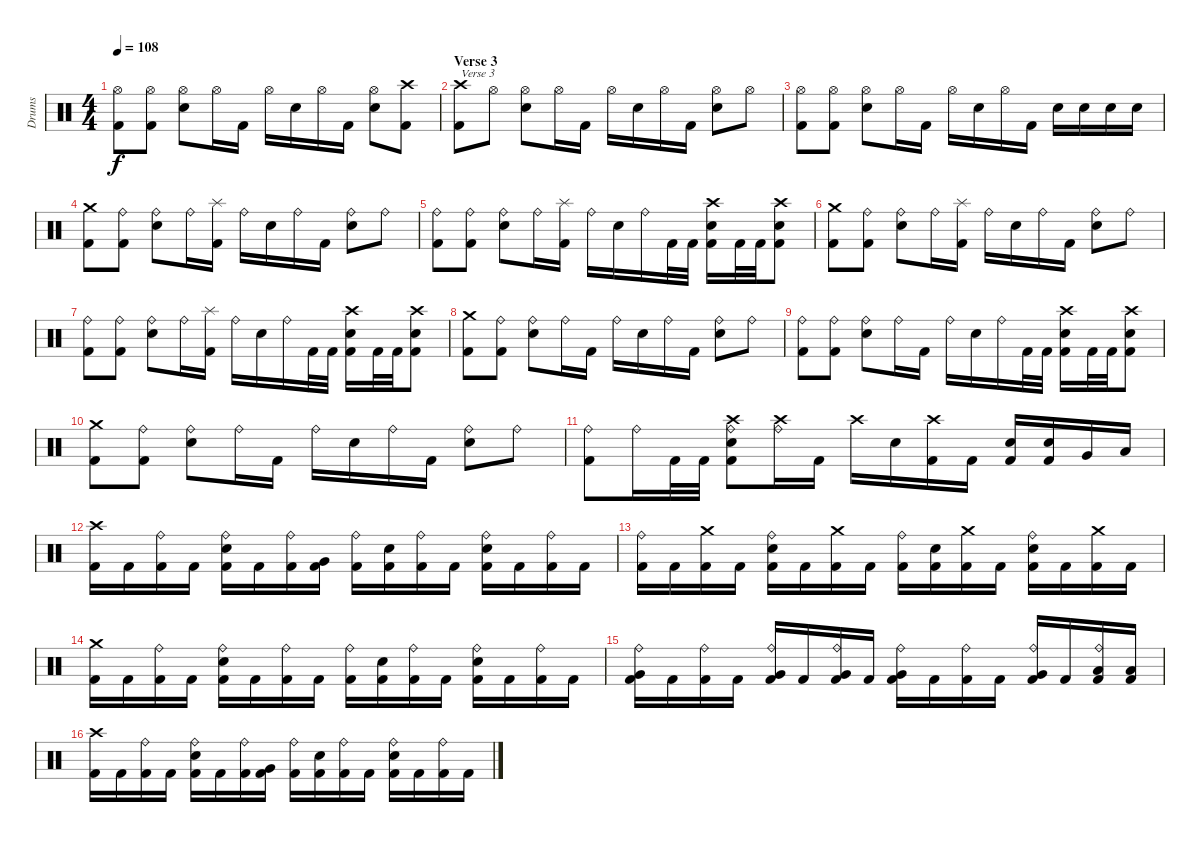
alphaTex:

\track ("Drums" "Drums") {instrument percussion}
\staff {score}
\articulation defaults
\ts (4 4)
\tempo 108
\clef neutral
\ks c
("Hi-Hat (open)" "Kick (hit) 2").8{dy f} ("Hi-Hat (open)" "Kick (hit) 2").8 ("Hi-Hat (open)" "Electric Snare (hit)").8 "Hi-Hat (open)".16 "Kick (hit) 2".16 "Hi-Hat (open)".16 "Electric Snare (hit)".16 "Hi-Hat (open)".16 "Kick (hit) 2".16 ("Hi-Hat (open)" "Electric Snare (hit)").8 ("Crash high (hit)" "Kick (hit) 2").8 |
\section ("" "Verse 3")
("Crash high (hit)" "Kick (hit) 2").8{txt "Verse 3"} "Hi-Hat (open)".8 ("Hi-Hat (open)" "Electric Snare (hit)").8 "Hi-Hat (open)".16 "Kick (hit) 2".16 "Hi-Hat (open)".16 "Electric Snare (hit)".16 "Hi-Hat (open)".16 "Kick (hit) 2".16 ("Hi-Hat (open)" "Electric Snare (hit)").8 "Hi-Hat (open)".8 |
("Hi-Hat (open)" "Kick (hit) 2").8 ("Hi-Hat (open)" "Kick (hit) 2").8 ("Hi-Hat (open)" "Electric Snare (hit)").8 "Hi-Hat (open)".16 "Kick (hit) 2".16 "Hi-Hat (open)".16 "Electric Snare (hit)".16 "Hi-Hat (open)".16 "Kick (hit) 2".16 "Electric Snare (hit)".16 "Electric Snare (hit)".16 "Electric Snare (hit)".16 "Electric Snare (hit)".16 |
("Crash medium (hit)" "Kick (hit) 2").8 ("Ride (bell)" "Kick (hit) 2").8 ("Ride (bell)" "Electric Snare (hit)").8 "Ride (bell)".16 ("Splash (hit)" "Kick (hit) 2").16 "Ride (bell)".16 "Electric Snare (hit)".16 "Ride (bell)".16 "Kick (hit) 2".16 ("Ride (bell)" "Electric Snare (hit)").8 "Ride (bell)".8 |
("Ride (bell)" "Kick (hit) 2").8 ("Ride (bell)" "Kick (hit) 2").8 ("Ride (bell)" "Electric Snare (hit)").8 "Ride (bell)".16 ("Splash (hit)" "Kick (hit) 2").16 "Ride (bell)".16 "Electric Snare (hit)".16 "Ride (bell)".16 "Kick (hit) 2".32 "Kick (hit) 2".32 ("Crash high (hit)" "Electric Snare (hit)" "Kick (hit) 2").16 "Kick (hit) 2".32 "Kick (hit) 2".32 ("Crash high (hit)" "Electric Snare (hit)" "Kick (hit) 2").8 |
("Crash medium (hit)" "Kick (hit) 2").8 ("Ride (bell)" "Kick (hit) 2").8 ("Ride (bell)" "Electric Snare (hit)").8 "Ride (bell)".16 ("Splash (hit)" "Kick (hit) 2").16 "Ride (bell)".16 "Electric Snare (hit)".16 "Ride (bell)".16 "Kick (hit) 2".16 ("Ride (bell)" "Electric Snare (hit)").8 "Ride (bell)".8 |
("Ride (bell)" "Kick (hit) 2").8 ("Ride (bell)" "Kick (hit) 2").8 ("Ride (bell)" "Electric Snare (hit)").8 "Ride (bell)".16 ("Splash (hit)" "Kick (hit) 2").16 "Ride (bell)".16 "Electric Snare (hit)".16 "Ride (bell)".16 "Kick (hit) 2".32 "Kick (hit) 2".32 ("Crash high (hit)" "Electric Snare (hit)" "Kick (hit) 2").16 "Kick (hit) 2".32 "Kick (hit) 2".32 ("Crash high (hit)" "Electric Snare (hit)" "Kick (hit) 2").8 |
("Crash medium (hit)" "Kick (hit) 2").8 ("Ride (bell)" "Kick (hit) 2").8 ("Ride (bell)" "Electric Snare (hit)").8 "Ride (bell)".16 "Kick (hit) 2".16 "Ride (bell)".16 "Electric Snare (hit)".16 "Ride (bell)".16 "Kick (hit) 2".16 ("Ride (bell)" "Electric Snare (hit)").8 "Ride (bell)".8 |
("Ride (bell)" "Kick (hit) 2").8 ("Ride (bell)" "Kick (hit) 2").8 ("Ride (bell)" "Electric Snare (hit)").8 "Ride (bell)".16 "Kick (hit) 2".16 "Ride (bell)".16 "Electric Snare (hit)".16 "Ride (bell)".16 "Kick (hit) 2".32 "Kick (hit) 2".32 ("Crash high (hit)" "Electric Snare (hit)" "Kick (hit) 2").16 "Kick (hit) 2".32 "Kick (hit) 2".32 ("Crash high (hit)" "Electric Snare (hit)" "Kick (hit) 2").8 |
("Crash medium (hit)" "Kick (hit) 2").8 ("Ride (bell)" "Kick (hit) 2").8 ("Ride (bell)" "Electric Snare (hit)").8 "Ride (bell)".16 "Kick (hit) 2".16 "Ride (bell)".16 "Electric Snare (hit)".16 "Ride (bell)".16 "Kick (hit) 2".16 ("Ride (bell)" "Electric Snare (hit)").8 "Ride (bell)".8 |
("Ride (bell)" "Kick (hit) 2").8 "Ride (bell)".16 "Kick (hit) 2".32 "Kick (hit) 2".32 ("Crash high (hit)" "Ride (bell)" "Electric Snare (hit)" "Kick (hit) 2").8 ("Crash high (hit)" "Ride (bell)").16 "Kick (hit) 2".16 "Crash high (hit)".16 "Electric Snare (hit)".16 ("Crash high (hit)" "Kick (hit) 2").16 "Kick (hit) 2".16 ("Electric Snare (hit)" "Kick (hit) 2").16 ("Electric Snare (hit)" "Kick (hit) 2").16 "Very Low Tom (hit)".16 "Low Tom (hit)".16 |
("Crash high (hit)" "Kick (hit) 2").16 "Kick (hit) 2".16 ("Ride (bell)" "Kick (hit) 2").16 "Kick (hit) 2".16 ("Ride (bell)" "Electric Snare (hit)" "Kick (hit) 2").16 "Kick (hit) 2".16 ("Ride (bell)" "Kick (hit) 2").16 ("Very Low Tom (hit)" "Kick (hit) 2").16 ("Ride (bell)" "Kick (hit) 2").16 ("Electric Snare (hit)" "Kick (hit) 2").16 ("Ride (bell)" "Kick (hit) 2").16 "Kick (hit) 2".16 ("Ride (bell)" "Electric Snare (hit)" "Kick (hit) 2").16 "Kick (hit) 2".16 ("Ride (bell)" "Kick (hit) 2").16 "Kick (hit) 2".16 |
("Ride (bell)" "Kick (hit) 2").16 "Kick (hit) 2".16 ("Crash medium (hit)" "Kick (hit) 2").16 "Kick (hit) 2".16 ("Ride (bell)" "Electric Snare (hit)" "Kick (hit) 2").16 "Kick (hit) 2".16 ("Crash medium (hit)" "Kick (hit) 2").16 "Kick (hit) 2".16 ("Ride (bell)" "Kick (hit) 2").16 ("Electric Snare (hit)" "Kick (hit) 2").16 ("Crash medium (hit)" "Kick (hit) 2").16 "Kick (hit) 2".16 ("Ride (bell)" "Electric Snare (hit)" "Kick (hit) 2").16 "Kick (hit) 2".16 ("Crash medium (hit)" "Kick (hit) 2").16 "Kick (hit) 2".16 |
("Crash medium (hit)" "Kick (hit) 2").16 "Kick (hit) 2".16 ("Ride (bell)" "Kick (hit) 2").16 "Kick (hit) 2".16 ("Ride (bell)" "Electric Snare (hit)" "Kick (hit) 2").16 "Kick (hit) 2".16 ("Ride (bell)" "Kick (hit) 2").16 "Kick (hit) 2".16 ("Ride (bell)" "Kick (hit) 2").16 ("Electric Snare (hit)" "Kick (hit) 2").16 ("Ride (bell)" "Kick (hit) 2").16 "Kick (hit) 2".16 ("Ride (bell)" "Electric Snare (hit)" "Kick (hit) 2").16 "Kick (hit) 2".16 ("Ride (bell)" "Kick (hit) 2").16 "Kick (hit) 2".16 |
("Ride (bell)" "Very Low Tom (hit)" "Kick (hit) 2").16 "Kick (hit) 2".16 ("Ride (bell)" "Kick (hit) 2").16 "Kick (hit) 2".16 ("Ride (bell)" "Very Low Tom (hit)" "Kick (hit) 2").16 "Kick (hit) 2".16 ("Ride (bell)" "Very Low Tom (hit)" "Kick (hit) 2").16 "Kick (hit) 2".16 ("Ride (bell)" "Very Low Tom (hit)" "Kick (hit) 2").16 "Kick (hit) 2".16 ("Ride (bell)" "Kick (hit) 2").16 "Kick (hit) 2".16 ("Ride (bell)" "Very Low Tom (hit)" "Kick (hit) 2").16 "Kick (hit) 2".16 ("Ride (bell)" "Low Floor Tom (hit)" "Kick (hit) 2").16 ("Low Floor Tom (hit)" "Kick (hit) 2").16 |
("Crash high (hit)" "Kick (hit) 2").16 "Kick (hit) 2".16 ("Ride (bell)" "Kick (hit) 2").16 "Kick (hit) 2".16 ("Ride (bell)" "Electric Snare (hit)" "Kick (hit) 2").16 "Kick (hit) 2".16 ("Ride (bell)" "Kick (hit) 2").16 ("Very Low Tom (hit)" "Kick (hit) 2").16 ("Ride (bell)" "Kick (hit) 2").16 ("Electric Snare (hit)" "Kick (hit) 2").16 ("Ride (bell)" "Kick (hit) 2").16 "Kick (hit) 2".16 ("Ride (bell)" "Electric Snare (hit)" "Kick (hit) 2").16 "Kick (hit) 2".16 ("Ride (bell)" "Kick (hit) 2").16 "Kick (hit) 2".16
